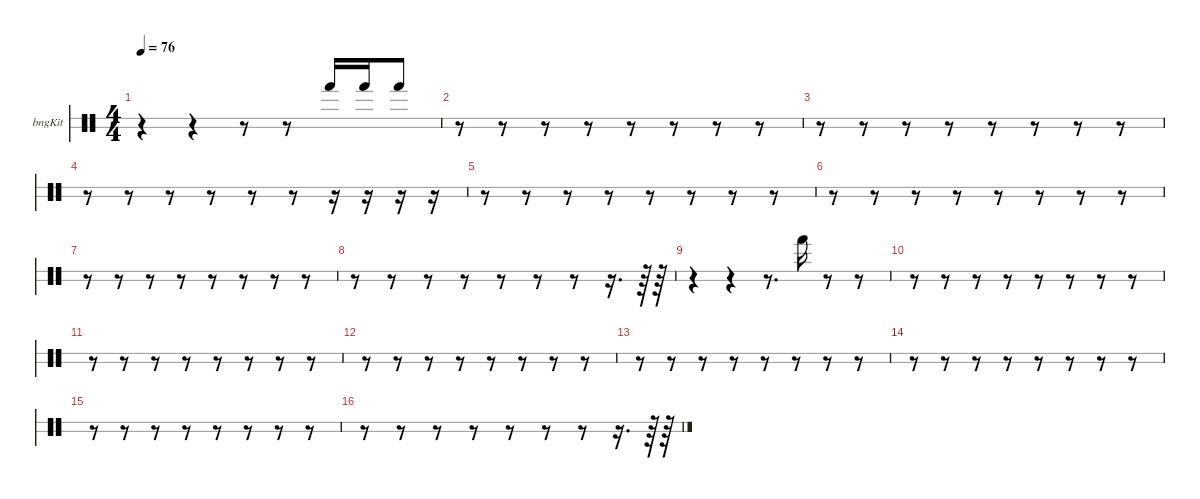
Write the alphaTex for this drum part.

\hideDynamics
\bracketExtendMode nobrackets
\firstSystemTrackNameOrientation horizontal
\otherSystemsTrackNameOrientation horizontal
\track ("Bongos" "bngKit") {instrument percussion}
\staff {score 2}
\articulation defaults
\ts (4 4)
\tempo 76
\clef neutral
\ks c
r.4{dy f beam Down} r.4{beam Down} r.8{beam Down} r.8{beam Down} "Hand (hit)".16{beam Up} "Hand (hit)".16{beam Up} "Hand (hit)".8{beam Up} |
r.8{beam Down} r.8{beam Down} r.8{beam Down} r.8{beam Down} r.8{beam Down} r.8{beam Down} r.8{beam Down} r.8{beam Down} |
r.8{beam Down} r.8{beam Down} r.8{beam Down} r.8{beam Down} r.8{beam Down} r.8{beam Down} r.8{beam Down} r.8{beam Down} |
r.8{beam Down} r.8{beam Down} r.8{beam Down} r.8{beam Down} r.8{beam Down} r.8{beam Down} r.16{beam Down} r.16{beam Down} r.16{beam Down} r.16{beam Down} |
r.8{beam Down} r.8{beam Down} r.8{beam Down} r.8{beam Down} r.8{beam Down} r.8{beam Down} r.8{beam Down} r.8{beam Down} |
r.8{beam Down} r.8{beam Down} r.8{beam Down} r.8{beam Down} r.8{beam Down} r.8{beam Down} r.8{beam Down} r.8{beam Down} |
r.8{beam Down} r.8{beam Down} r.8{beam Down} r.8{beam Down} r.8{beam Down} r.8{beam Down} r.8{beam Down} r.8{beam Down} |
r.8{beam Down} r.8{beam Down} r.8{beam Down} r.8{beam Down} r.8{beam Down} r.8{beam Down} r.8{beam Down} r.16{d beam Down} r.64{beam Down} r.64{beam Down} |
r.4{beam Down} r.4{beam Down} r.8{d beam Down} "Hand (hit)".16{beam Up} r.8{beam Up} r.8{beam Up} |
r.8{beam Down} r.8{beam Down} r.8{beam Down} r.8{beam Down} r.8{beam Down} r.8{beam Down} r.8{beam Down} r.8{beam Down} |
r.8{beam Down} r.8{beam Down} r.8{beam Down} r.8{beam Down} r.8{beam Down} r.8{beam Down} r.8{beam Down} r.8{beam Down} |
r.8{beam Down} r.8{beam Down} r.8{beam Down} r.8{beam Down} r.8{beam Down} r.8{beam Down} r.8{beam Down} r.8{beam Down} |
r.8{beam Down} r.8{beam Down} r.8{beam Down} r.8{beam Down} r.8{beam Down} r.8{beam Down} r.8{beam Down} r.8{beam Down} |
r.8{beam Down} r.8{beam Down} r.8{beam Down} r.8{beam Down} r.8{beam Down} r.8{beam Down} r.8{beam Down} r.8{beam Down} |
r.8{beam Down} r.8{beam Down} r.8{beam Down} r.8{beam Down} r.8{beam Down} r.8{beam Down} r.8{beam Down} r.8{beam Down} |
r.8{beam Down} r.8{beam Down} r.8{beam Down} r.8{beam Down} r.8{beam Down} r.8{beam Down} r.8{beam Down} r.16{d beam Down} r.64{beam Down} r.64{beam Down}
